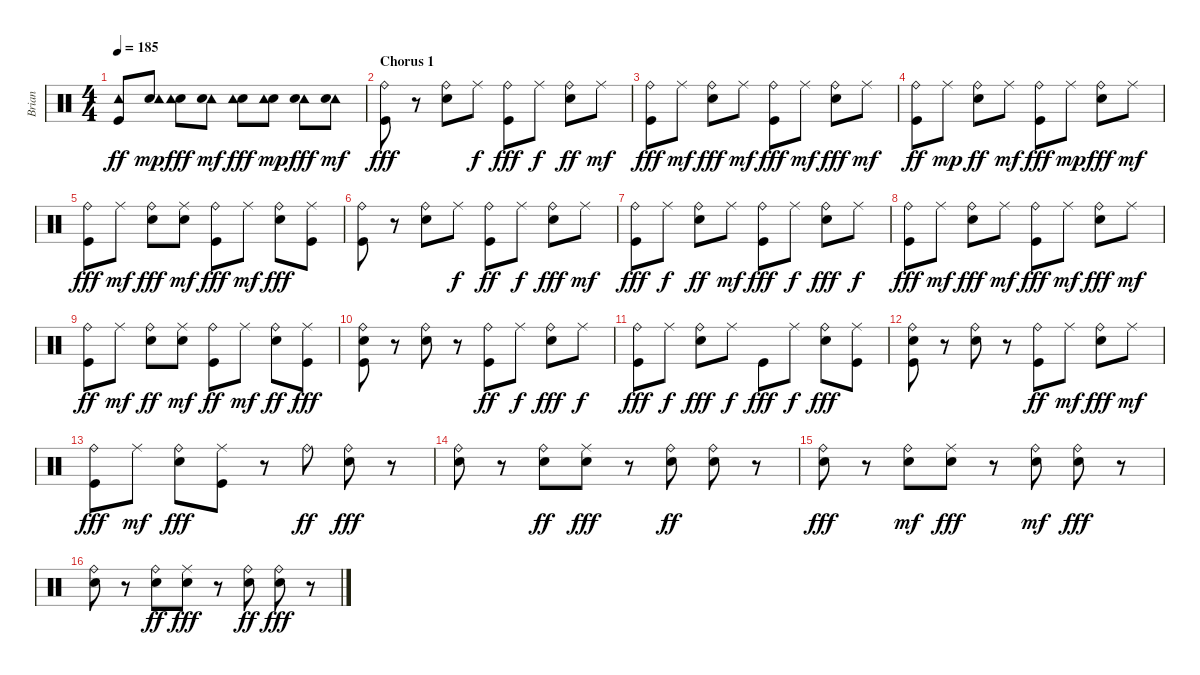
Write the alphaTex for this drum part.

\track ("Brian" "Brian") {instrument percussion}
\staff {score}
\articulation defaults
\ts (4 4)
\tempo 185
\clef neutral
\ks c
("Tambourine (hit)" "Kick (hit)").8{dy ff} ("Electric Snare (hit)" "Tambourine (hit)").8{dy mp} ("Electric Snare (hit)" "Tambourine (hit)").8{dy fff} ("Tambourine (hit)" "Electric Snare (hit)").8{dy mf} ("Electric Snare (hit)" "Tambourine (hit)").8{dy fff} ("Electric Snare (hit)" "Tambourine (hit)").8{dy mp} ("Tambourine (hit)" "Electric Snare (hit)").8{dy fff} ("Tambourine (hit)" "Electric Snare (hit)").8{dy mf} |
\section ("" "Chorus 1")
("Ride (bell)" "Kick (hit)").8{dy fff} r.8 ("Electric Snare (hit)" "Ride (bell)").8 "Ride (middle)".8{dy f} ("Kick (hit)" "Ride (bell)").8{dy fff} "Ride (middle)".8{dy f} ("Electric Snare (hit)" "Ride (bell)").8{dy ff} "Ride (middle)".8{dy mf} |
("Ride (bell)" "Kick (hit)").8{dy fff} "Ride (middle)".8{dy mf} ("Ride (bell)" "Electric Snare (hit)").8{dy fff} "Ride (middle)".8{dy mf} ("Ride (bell)" "Kick (hit)").8{dy fff} "Ride (middle)".8{dy mf} ("Ride (bell)" "Electric Snare (hit)").8{dy fff} "Ride (middle)".8{dy mf} |
("Kick (hit)" "Ride (bell)").8{dy ff} "Ride (middle)".8{dy mp} ("Electric Snare (hit)" "Ride (bell)").8{dy ff} "Ride (middle)".8{dy mf} ("Ride (bell)" "Kick (hit)").8{dy fff} "Ride (middle)".8{dy mp} ("Ride (bell)" "Electric Snare (hit)").8{dy fff} "Ride (middle)".8{dy mf} |
("Ride (bell)" "Kick (hit)").8{dy fff} "Ride (middle)".8{dy mf} ("Ride (bell)" "Electric Snare (hit)").8{dy fff} ("Electric Snare (hit)" "Ride (middle)").8{dy mf} ("Ride (bell)" "Kick (hit)").8{dy fff} "Ride (middle)".8{dy mf} ("Ride (bell)" "Electric Snare (hit)").8{dy fff} ("Ride (middle)" "Kick (hit)").8 |
("Ride (bell)" "Kick (hit)").8 r.8 ("Ride (bell)" "Electric Snare (hit)").8 "Ride (middle)".8{dy f} ("Kick (hit)" "Ride (bell)").8{dy ff} "Ride (middle)".8{dy f} ("Ride (bell)" "Electric Snare (hit)").8{dy fff} "Ride (middle)".8{dy mf} |
("Ride (bell)" "Kick (hit)").8{dy fff} "Ride (middle)".8{dy f} ("Electric Snare (hit)" "Ride (bell)").8{dy ff} "Ride (middle)".8{dy mf} ("Ride (bell)" "Kick (hit)").8{dy fff} "Ride (middle)".8{dy f} ("Ride (bell)" "Electric Snare (hit)").8{dy fff} "Ride (middle)".8{dy f} |
("Ride (bell)" "Kick (hit)").8{dy fff} "Ride (middle)".8{dy mf} ("Ride (bell)" "Electric Snare (hit)").8{dy fff} "Ride (middle)".8{dy mf} ("Ride (bell)" "Kick (hit)").8{dy fff} "Ride (middle)".8{dy mf} ("Ride (bell)" "Electric Snare (hit)").8{dy fff} "Ride (middle)".8{dy mf} |
("Kick (hit)" "Ride (bell)").8{dy ff} "Ride (middle)".8{dy mf} ("Electric Snare (hit)" "Ride (bell)").8{dy ff} ("Ride (middle)" "Electric Snare (hit)").8{dy mf} ("Kick (hit)" "Ride (bell)").8{dy ff} "Ride (middle)".8{dy mf} ("Electric Snare (hit)" "Ride (bell)").8{dy ff} ("Kick (hit)" "Ride (middle)").8{dy fff} |
("Ride (bell)" "Electric Snare (hit)" "Kick (hit)").8 r.8 ("Electric Snare (hit)" "Ride (bell)").8 r.8 ("Kick (hit)" "Ride (bell)").8{dy ff} "Ride (middle)".8{dy f} ("Ride (bell)" "Electric Snare (hit)").8{dy fff} "Ride (middle)".8{dy f} |
("Ride (bell)" "Kick (hit)").8{dy fff} "Ride (middle)".8{dy f} ("Ride (bell)" "Electric Snare (hit)").8{dy fff} "Ride (middle)".8{dy f} "Kick (hit)".8{dy fff} "Ride (middle)".8{dy f} ("Ride (bell)" "Electric Snare (hit)").8{dy fff} ("Ride (middle)" "Kick (hit)").8 |
("Electric Snare (hit)" "Ride (bell)" "Kick (hit)").8 r.8 ("Ride (bell)" "Electric Snare (hit)").8 r.8 ("Kick (hit)" "Ride (bell)").8{dy ff} "Ride (middle)".8{dy mf} ("Ride (bell)" "Electric Snare (hit)").8{dy fff} "Ride (middle)".8{dy mf} |
("Ride (bell)" "Kick (hit)").8{dy fff} "Ride (middle)".8{dy mf} ("Ride (bell)" "Electric Snare (hit)").8{dy fff} ("Ride (middle)" "Kick (hit)").8 r.8 "Ride (bell)".8{dy ff} ("Electric Snare (hit)" "Ride (bell)").8{dy fff} r.8 |
("Ride (bell)" "Electric Snare (hit)").8 r.8 ("Ride (bell)" "Electric Snare (hit)").8{dy ff} ("Electric Snare (hit)" "Ride (middle)").8{dy fff} r.8 ("Electric Snare (hit)" "Ride (bell)").8{dy ff} ("Electric Snare (hit)" "Ride (bell)").8 r.8 |
("Electric Snare (hit)" "Ride (bell)").8{dy fff} r.8 ("Ride (bell)" "Electric Snare (hit)").8{dy mf} ("Ride (middle)" "Electric Snare (hit)").8{dy fff} r.8 ("Electric Snare (hit)" "Ride (bell)").8{dy mf} ("Electric Snare (hit)" "Ride (bell)").8{dy fff} r.8 |
("Electric Snare (hit)" "Ride (bell)").8 r.8 ("Electric Snare (hit)" "Ride (bell)").8{dy ff} ("Ride (middle)" "Electric Snare (hit)").8{dy fff} r.8 ("Electric Snare (hit)" "Ride (bell)").8{dy ff} ("Electric Snare (hit)" "Ride (bell)").8{dy fff} r.8
